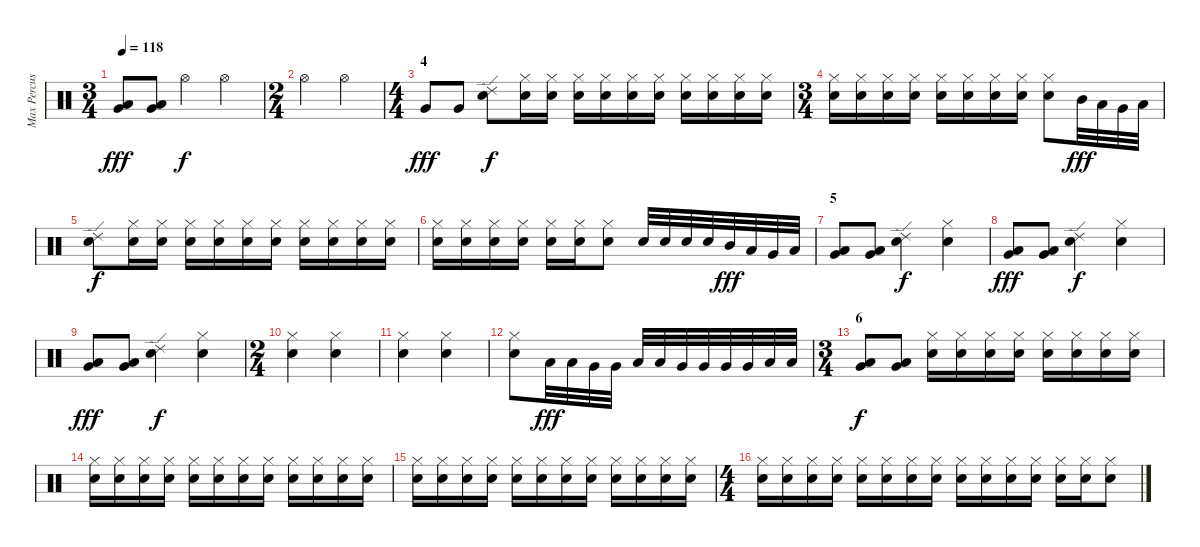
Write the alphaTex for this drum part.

\track ("Max Percussion" "Max Percus") {instrument percussion}
\staff {score}
\articulation defaults
\ts (3 4)
\tempo 118
\clef neutral
\ks c
("Very Low Tom (hit)" "Low Floor Tom (hit)").8{dy fff} ("Very Low Tom (hit)" "Low Floor Tom (hit)").8 "Hi-Hat (open)".4{dy f} "Hi-Hat (open)".4 |
\ts (2 4)
"Hi-Hat (open)".4 "Hi-Hat (open)".4 |
\ts (4 4)
\section ("" "4")
"Very Low Tom (hit)".8{dy fff} "Very Low Tom (hit)".8 ("Ride (edge) 2" "Snare (hit) 2").8{dy f} ("Hi-Hat (closed)" "Snare (hit) 2").16 ("Hi-Hat (closed)" "Snare (hit) 2").16 ("Hi-Hat (closed)" "Snare (hit) 2").16 ("Hi-Hat (closed)" "Snare (hit) 2").16 ("Hi-Hat (closed)" "Snare (hit) 2").16 ("Hi-Hat (closed)" "Snare (hit) 2").16 ("Hi-Hat (closed)" "Snare (hit) 2").16 ("Hi-Hat (closed)" "Snare (hit) 2").16 ("Hi-Hat (closed)" "Snare (hit) 2").16 ("Hi-Hat (closed)" "Snare (hit) 2").16 |
\ts (3 4)
("Hi-Hat (closed)" "Snare (hit) 2").16 ("Hi-Hat (closed)" "Snare (hit) 2").16 ("Hi-Hat (closed)" "Snare (hit) 2").16 ("Hi-Hat (closed)" "Snare (hit) 2").16 ("Hi-Hat (closed)" "Snare (hit) 2").16 ("Hi-Hat (closed)" "Snare (hit) 2").16 ("Hi-Hat (closed)" "Snare (hit) 2").16 ("Hi-Hat (closed)" "Snare (hit) 2").16 ("Hi-Hat (closed)" "Snare (hit) 2").8 "Mid Tom (hit)".32{dy fff} "Low Tom (hit)".32 "Very Low Tom (hit)".32 "Low Floor Tom (hit)".32 |
("Ride (edge) 2" "Snare (hit) 2").8{dy f} ("Hi-Hat (closed)" "Snare (hit) 2").16 ("Hi-Hat (closed)" "Snare (hit) 2").16 ("Hi-Hat (closed)" "Snare (hit) 2").16 ("Hi-Hat (closed)" "Snare (hit) 2").16 ("Hi-Hat (closed)" "Snare (hit) 2").16 ("Hi-Hat (closed)" "Snare (hit) 2").16 ("Hi-Hat (closed)" "Snare (hit) 2").16 ("Hi-Hat (closed)" "Snare (hit) 2").16 ("Hi-Hat (closed)" "Snare (hit) 2").16 ("Hi-Hat (closed)" "Snare (hit) 2").16 |
("Hi-Hat (closed)" "Snare (hit) 2").16 ("Hi-Hat (closed)" "Snare (hit) 2").16 ("Hi-Hat (closed)" "Snare (hit) 2").16 ("Hi-Hat (closed)" "Snare (hit) 2").16 ("Hi-Hat (closed)" "Snare (hit) 2").16 ("Hi-Hat (closed)" "Snare (hit) 2").16 ("Hi-Hat (closed)" "Snare (hit) 2").8 "Snare (hit) 2".32 "Snare (hit) 2".32 "Snare (hit) 2".32 "Snare (hit) 2".32 "Mid Tom (hit)".32{dy fff} "Low Tom (hit)".32 "Very Low Tom (hit)".32 "Low Floor Tom (hit)".32 |
\section ("" "5")
("Low Floor Tom (hit)" "Very Low Tom (hit)").8 ("Low Floor Tom (hit)" "Very Low Tom (hit)").8 ("Ride (edge) 2" "Snare (hit) 2").4{dy f} ("Hi-Hat (closed)" "Snare (hit) 2").4 |
("Low Floor Tom (hit)" "Very Low Tom (hit)").8{dy fff} ("Low Floor Tom (hit)" "Very Low Tom (hit)").8 ("Ride (edge) 2" "Snare (hit) 2").4{dy f} ("Hi-Hat (closed)" "Snare (hit) 2").4 |
("Low Floor Tom (hit)" "Very Low Tom (hit)").8{dy fff} ("Low Floor Tom (hit)" "Very Low Tom (hit)").8 ("Ride (edge) 2" "Snare (hit) 2").4{dy f} ("Hi-Hat (closed)" "Snare (hit) 2").4 |
\ts (2 4)
("Hi-Hat (closed)" "Snare (hit) 2").4 ("Hi-Hat (closed)" "Snare (hit) 2").4 |
("Hi-Hat (closed)" "Snare (hit) 2").4 ("Hi-Hat (closed)" "Snare (hit) 2").4 |
("Hi-Hat (closed)" "Snare (hit) 2").8 "Low Tom (hit)".32{dy fff} "Low Tom (hit)".32 "Very Low Tom (hit)".32 "Very Low Tom (hit)".32 "Low Tom (hit)".32 "Low Tom (hit)".32 "Very Low Tom (hit)".32 "Very Low Tom (hit)".32 "Very Low Tom (hit)".32 "Very Low Tom (hit)".32 "Low Floor Tom (hit)".32 "Low Floor Tom (hit)".32 |
\ts (3 4)
\section ("" "6")
("Very Low Tom (hit)" "Low Floor Tom (hit)").8{dy f} ("Very Low Tom (hit)" "Low Floor Tom (hit)").8 ("Hi-Hat (closed)" "Snare (hit) 2").16 ("Hi-Hat (closed)" "Snare (hit) 2").16 ("Hi-Hat (closed)" "Snare (hit) 2").16 ("Hi-Hat (closed)" "Snare (hit) 2").16 ("Hi-Hat (closed)" "Snare (hit) 2").16 ("Hi-Hat (closed)" "Snare (hit) 2").16 ("Hi-Hat (closed)" "Snare (hit) 2").16 ("Hi-Hat (closed)" "Snare (hit) 2").16 |
("Hi-Hat (closed)" "Snare (hit) 2").16 ("Hi-Hat (closed)" "Snare (hit) 2").16 ("Hi-Hat (closed)" "Snare (hit) 2").16 ("Hi-Hat (closed)" "Snare (hit) 2").16 ("Hi-Hat (closed)" "Snare (hit) 2").16 ("Hi-Hat (closed)" "Snare (hit) 2").16 ("Hi-Hat (closed)" "Snare (hit) 2").16 ("Hi-Hat (closed)" "Snare (hit) 2").16 ("Hi-Hat (closed)" "Snare (hit) 2").16 ("Hi-Hat (closed)" "Snare (hit) 2").16 ("Hi-Hat (closed)" "Snare (hit) 2").16 ("Hi-Hat (closed)" "Snare (hit) 2").16 |
("Hi-Hat (closed)" "Snare (hit) 2").16 ("Hi-Hat (closed)" "Snare (hit) 2").16 ("Hi-Hat (closed)" "Snare (hit) 2").16 ("Hi-Hat (closed)" "Snare (hit) 2").16 ("Hi-Hat (closed)" "Snare (hit) 2").16 ("Hi-Hat (closed)" "Snare (hit) 2").16 ("Hi-Hat (closed)" "Snare (hit) 2").16 ("Hi-Hat (closed)" "Snare (hit) 2").16 ("Hi-Hat (closed)" "Snare (hit) 2").16 ("Hi-Hat (closed)" "Snare (hit) 2").16 ("Hi-Hat (closed)" "Snare (hit) 2").16 ("Hi-Hat (closed)" "Snare (hit) 2").16 |
\ts (4 4)
("Hi-Hat (closed)" "Snare (hit) 2").16 ("Hi-Hat (closed)" "Snare (hit) 2").16 ("Hi-Hat (closed)" "Snare (hit) 2").16 ("Hi-Hat (closed)" "Snare (hit) 2").16 ("Hi-Hat (closed)" "Snare (hit) 2").16 ("Hi-Hat (closed)" "Snare (hit) 2").16 ("Hi-Hat (closed)" "Snare (hit) 2").16 ("Hi-Hat (closed)" "Snare (hit) 2").16 ("Hi-Hat (closed)" "Snare (hit) 2").16 ("Hi-Hat (closed)" "Snare (hit) 2").16 ("Hi-Hat (closed)" "Snare (hit) 2").16 ("Hi-Hat (closed)" "Snare (hit) 2").16 ("Hi-Hat (closed)" "Snare (hit) 2").16 ("Hi-Hat (closed)" "Snare (hit) 2").16 ("Hi-Hat (closed)" "Snare (hit) 2").8
